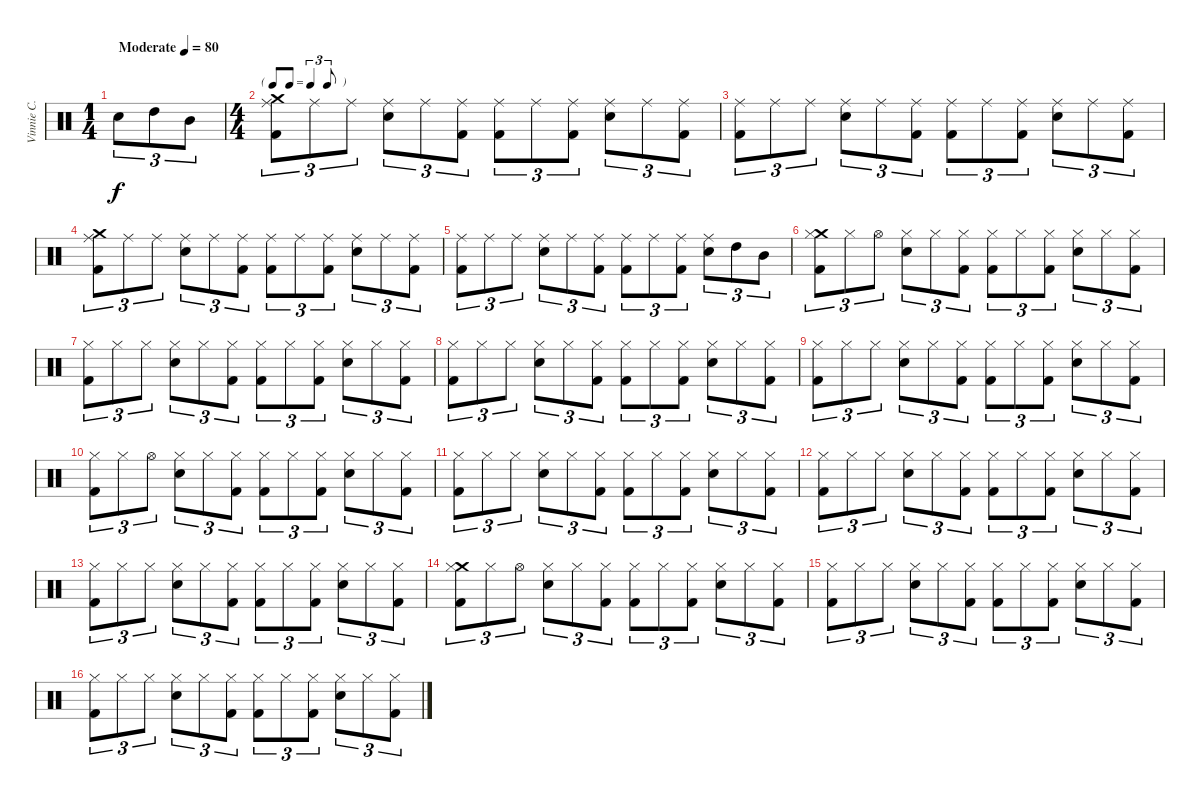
\track ("Vinnie C." "Vinnie C.") {instrument percussion}
\staff {score}
\articulation defaults
\ts (1 4)
\tempo (80 "Moderate")
\clef neutral
\ks c "Electric Snare (hit)".8{tu (3 2) dy f} "High Tom (hit)".8{tu (3 2)} "Mid Tom (hit)".8{tu (3 2)}
|
\ts (4 4)
\tf triplet8th
("Crash medium (hit)" "Ride (middle)" "Kick (hit) 2").8{tu (3 2) beam merge} "Ride (middle)".8{tu (3 2) beam merge} "Ride (middle)".8{tu (3 2)} ("Ride (middle)" "Electric Snare (hit)").8{tu (3 2) beam merge} "Ride (middle)".8{tu (3 2)} ("Ride (middle)" "Kick (hit) 2").8{tu (3 2)} ("Ride (middle)" "Kick (hit) 2").8{tu (3 2)} "Ride (middle)".8{tu (3 2) beam merge} ("Ride (middle)" "Kick (hit) 2").8{tu (3 2)} ("Ride (middle)" "Electric Snare (hit)").8{tu (3 2)} "Ride (middle)".8{tu (3 2)} ("Ride (middle)" "Kick (hit) 2").8{tu (3 2)} |
("Ride (middle)" "Kick (hit) 2").8{tu (3 2) beam merge} "Ride (middle)".8{tu (3 2) beam merge} "Ride (middle)".8{tu (3 2)} ("Ride (middle)" "Electric Snare (hit)").8{tu (3 2) beam merge} "Ride (middle)".8{tu (3 2)} ("Ride (middle)" "Kick (hit) 2").8{tu (3 2)} ("Ride (middle)" "Kick (hit) 2").8{tu (3 2)} "Ride (middle)".8{tu (3 2) beam merge} ("Ride (middle)" "Kick (hit) 2").8{tu (3 2)} ("Ride (middle)" "Electric Snare (hit)").8{tu (3 2)} "Ride (middle)".8{tu (3 2)} ("Ride (middle)" "Kick (hit) 2").8{tu (3 2)} |
("Crash medium (hit)" "Ride (middle)" "Kick (hit) 2").8{tu (3 2) beam merge} "Ride (middle)".8{tu (3 2) beam merge} "Ride (middle)".8{tu (3 2)} ("Ride (middle)" "Electric Snare (hit)").8{tu (3 2) beam merge} "Ride (middle)".8{tu (3 2)} ("Ride (middle)" "Kick (hit) 2").8{tu (3 2)} ("Ride (middle)" "Kick (hit) 2").8{tu (3 2)} "Ride (middle)".8{tu (3 2) beam merge} ("Ride (middle)" "Kick (hit) 2").8{tu (3 2)} ("Ride (middle)" "Electric Snare (hit)").8{tu (3 2)} "Ride (middle)".8{tu (3 2)} ("Ride (middle)" "Kick (hit) 2").8{tu (3 2)} |
("Ride (middle)" "Kick (hit) 2").8{tu (3 2) beam merge} "Ride (middle)".8{tu (3 2) beam merge} "Ride (middle)".8{tu (3 2)} ("Ride (middle)" "Electric Snare (hit)").8{tu (3 2) beam merge} "Ride (middle)".8{tu (3 2)} ("Ride (middle)" "Kick (hit) 2").8{tu (3 2)} ("Ride (middle)" "Kick (hit) 2").8{tu (3 2)} "Ride (middle)".8{tu (3 2) beam merge} ("Ride (middle)" "Kick (hit) 2").8{tu (3 2)} ("Ride (middle)" "Electric Snare (hit)").8{tu (3 2)} "High Tom (hit)".8{tu (3 2)} "Mid Tom (hit)".8{tu (3 2)} |
("Crash medium (hit)" "Hi-Hat (closed)" "Kick (hit) 2").8{tu (3 2)} "Hi-Hat (closed)".8{tu (3 2)} "Hi-Hat (open)".8{tu (3 2)} ("Hi-Hat (closed)" "Electric Snare (hit)").8{tu (3 2)} "Hi-Hat (closed)".8{tu (3 2)} ("Hi-Hat (closed)" "Kick (hit) 2").8{tu (3 2)} ("Hi-Hat (closed)" "Kick (hit) 2").8{tu (3 2)} "Hi-Hat (closed)".8{tu (3 2)} ("Hi-Hat (closed)" "Kick (hit) 2").8{tu (3 2)} ("Hi-Hat (closed)" "Electric Snare (hit)").8{tu (3 2) beam merge} "Hi-Hat (closed)".8{tu (3 2) beam merge} ("Hi-Hat (closed)" "Kick (hit) 2").8{tu (3 2)} |
("Hi-Hat (closed)" "Kick (hit) 2").8{tu (3 2)} "Hi-Hat (closed)".8{tu (3 2)} "Hi-Hat (closed)".8{tu (3 2)} ("Hi-Hat (closed)" "Electric Snare (hit)").8{tu (3 2)} "Hi-Hat (closed)".8{tu (3 2)} ("Hi-Hat (closed)" "Kick (hit) 2").8{tu (3 2)} ("Hi-Hat (closed)" "Kick (hit) 2").8{tu (3 2)} "Hi-Hat (closed)".8{tu (3 2)} ("Hi-Hat (closed)" "Kick (hit) 2").8{tu (3 2)} ("Hi-Hat (closed)" "Electric Snare (hit)").8{tu (3 2) beam merge} "Hi-Hat (closed)".8{tu (3 2) beam merge} ("Hi-Hat (closed)" "Kick (hit) 2").8{tu (3 2)} |
("Hi-Hat (closed)" "Kick (hit) 2").8{tu (3 2)} "Hi-Hat (closed)".8{tu (3 2)} "Hi-Hat (closed)".8{tu (3 2)} ("Hi-Hat (closed)" "Electric Snare (hit)").8{tu (3 2)} "Hi-Hat (closed)".8{tu (3 2)} ("Hi-Hat (closed)" "Kick (hit) 2").8{tu (3 2)} ("Hi-Hat (closed)" "Kick (hit) 2").8{tu (3 2)} "Hi-Hat (closed)".8{tu (3 2)} ("Hi-Hat (closed)" "Kick (hit) 2").8{tu (3 2)} ("Hi-Hat (closed)" "Electric Snare (hit)").8{tu (3 2) beam merge} "Hi-Hat (closed)".8{tu (3 2) beam merge} ("Hi-Hat (closed)" "Kick (hit) 2").8{tu (3 2)} |
("Hi-Hat (closed)" "Kick (hit) 2").8{tu (3 2)} "Hi-Hat (closed)".8{tu (3 2)} "Hi-Hat (closed)".8{tu (3 2)} ("Hi-Hat (closed)" "Electric Snare (hit)").8{tu (3 2)} "Hi-Hat (closed)".8{tu (3 2)} ("Hi-Hat (closed)" "Kick (hit) 2").8{tu (3 2)} ("Hi-Hat (closed)" "Kick (hit) 2").8{tu (3 2)} "Hi-Hat (closed)".8{tu (3 2)} ("Hi-Hat (closed)" "Kick (hit) 2").8{tu (3 2)} ("Hi-Hat (closed)" "Electric Snare (hit)").8{tu (3 2) beam merge} "Hi-Hat (closed)".8{tu (3 2) beam merge} ("Hi-Hat (closed)" "Kick (hit) 2").8{tu (3 2)} |
("Hi-Hat (closed)" "Kick (hit) 2").8{tu (3 2)} "Hi-Hat (closed)".8{tu (3 2)} "Hi-Hat (open)".8{tu (3 2)} ("Hi-Hat (closed)" "Electric Snare (hit)").8{tu (3 2)} "Hi-Hat (closed)".8{tu (3 2)} ("Hi-Hat (closed)" "Kick (hit) 2").8{tu (3 2)} ("Hi-Hat (closed)" "Kick (hit) 2").8{tu (3 2)} "Hi-Hat (closed)".8{tu (3 2)} ("Hi-Hat (closed)" "Kick (hit) 2").8{tu (3 2)} ("Hi-Hat (closed)" "Electric Snare (hit)").8{tu (3 2) beam merge} "Hi-Hat (closed)".8{tu (3 2) beam merge} ("Hi-Hat (closed)" "Kick (hit) 2").8{tu (3 2)} |
("Hi-Hat (closed)" "Kick (hit) 2").8{tu (3 2)} "Hi-Hat (closed)".8{tu (3 2)} "Hi-Hat (closed)".8{tu (3 2)} ("Hi-Hat (closed)" "Electric Snare (hit)").8{tu (3 2)} "Hi-Hat (closed)".8{tu (3 2)} ("Hi-Hat (closed)" "Kick (hit) 2").8{tu (3 2)} ("Hi-Hat (closed)" "Kick (hit) 2").8{tu (3 2)} "Hi-Hat (closed)".8{tu (3 2)} ("Hi-Hat (closed)" "Kick (hit) 2").8{tu (3 2)} ("Hi-Hat (closed)" "Electric Snare (hit)").8{tu (3 2) beam merge} "Hi-Hat (closed)".8{tu (3 2) beam merge} ("Hi-Hat (closed)" "Kick (hit) 2").8{tu (3 2)} |
("Hi-Hat (closed)" "Kick (hit) 2").8{tu (3 2)} "Hi-Hat (closed)".8{tu (3 2)} "Hi-Hat (closed)".8{tu (3 2)} ("Hi-Hat (closed)" "Electric Snare (hit)").8{tu (3 2)} "Hi-Hat (closed)".8{tu (3 2)} ("Hi-Hat (closed)" "Kick (hit) 2").8{tu (3 2)} ("Hi-Hat (closed)" "Kick (hit) 2").8{tu (3 2)} "Hi-Hat (closed)".8{tu (3 2)} ("Hi-Hat (closed)" "Kick (hit) 2").8{tu (3 2)} ("Hi-Hat (closed)" "Electric Snare (hit)").8{tu (3 2) beam merge} "Hi-Hat (closed)".8{tu (3 2) beam merge} ("Hi-Hat (closed)" "Kick (hit) 2").8{tu (3 2)} |
("Hi-Hat (closed)" "Kick (hit) 2").8{tu (3 2)} "Hi-Hat (closed)".8{tu (3 2)} "Hi-Hat (closed)".8{tu (3 2)} ("Hi-Hat (closed)" "Electric Snare (hit)").8{tu (3 2)} "Hi-Hat (closed)".8{tu (3 2)} ("Hi-Hat (closed)" "Kick (hit) 2").8{tu (3 2)} ("Hi-Hat (closed)" "Kick (hit) 2").8{tu (3 2)} "Hi-Hat (closed)".8{tu (3 2)} ("Hi-Hat (closed)" "Kick (hit) 2").8{tu (3 2)} ("Hi-Hat (closed)" "Electric Snare (hit)").8{tu (3 2) beam merge} "Hi-Hat (closed)".8{tu (3 2) beam merge} ("Hi-Hat (closed)" "Kick (hit) 2").8{tu (3 2)} |
("Crash medium (hit)" "Hi-Hat (closed)" "Kick (hit) 2").8{tu (3 2)} "Hi-Hat (closed)".8{tu (3 2)} "Hi-Hat (open)".8{tu (3 2)} ("Hi-Hat (closed)" "Electric Snare (hit)").8{tu (3 2)} "Hi-Hat (closed)".8{tu (3 2)} ("Hi-Hat (closed)" "Kick (hit) 2").8{tu (3 2)} ("Hi-Hat (closed)" "Kick (hit) 2").8{tu (3 2)} "Hi-Hat (closed)".8{tu (3 2)} ("Hi-Hat (closed)" "Kick (hit) 2").8{tu (3 2)} ("Hi-Hat (closed)" "Electric Snare (hit)").8{tu (3 2) beam merge} "Hi-Hat (closed)".8{tu (3 2) beam merge} ("Hi-Hat (closed)" "Kick (hit) 2").8{tu (3 2)} |
("Hi-Hat (closed)" "Kick (hit) 2").8{tu (3 2)} "Hi-Hat (closed)".8{tu (3 2)} "Hi-Hat (closed)".8{tu (3 2)} ("Hi-Hat (closed)" "Electric Snare (hit)").8{tu (3 2)} "Hi-Hat (closed)".8{tu (3 2)} ("Hi-Hat (closed)" "Kick (hit) 2").8{tu (3 2)} ("Hi-Hat (closed)" "Kick (hit) 2").8{tu (3 2)} "Hi-Hat (closed)".8{tu (3 2)} ("Hi-Hat (closed)" "Kick (hit) 2").8{tu (3 2)} ("Hi-Hat (closed)" "Electric Snare (hit)").8{tu (3 2) beam merge} "Hi-Hat (closed)".8{tu (3 2) beam merge} ("Hi-Hat (closed)" "Kick (hit) 2").8{tu (3 2)} |
("Hi-Hat (closed)" "Kick (hit) 2").8{tu (3 2)} "Hi-Hat (closed)".8{tu (3 2)} "Hi-Hat (closed)".8{tu (3 2)} ("Hi-Hat (closed)" "Electric Snare (hit)").8{tu (3 2)} "Hi-Hat (closed)".8{tu (3 2)} ("Hi-Hat (closed)" "Kick (hit) 2").8{tu (3 2)} ("Hi-Hat (closed)" "Kick (hit) 2").8{tu (3 2)} "Hi-Hat (closed)".8{tu (3 2)} ("Hi-Hat (closed)" "Kick (hit) 2").8{tu (3 2)} ("Hi-Hat (closed)" "Electric Snare (hit)").8{tu (3 2) beam merge} "Hi-Hat (closed)".8{tu (3 2) beam merge} ("Hi-Hat (closed)" "Kick (hit) 2").8{tu (3 2)}
